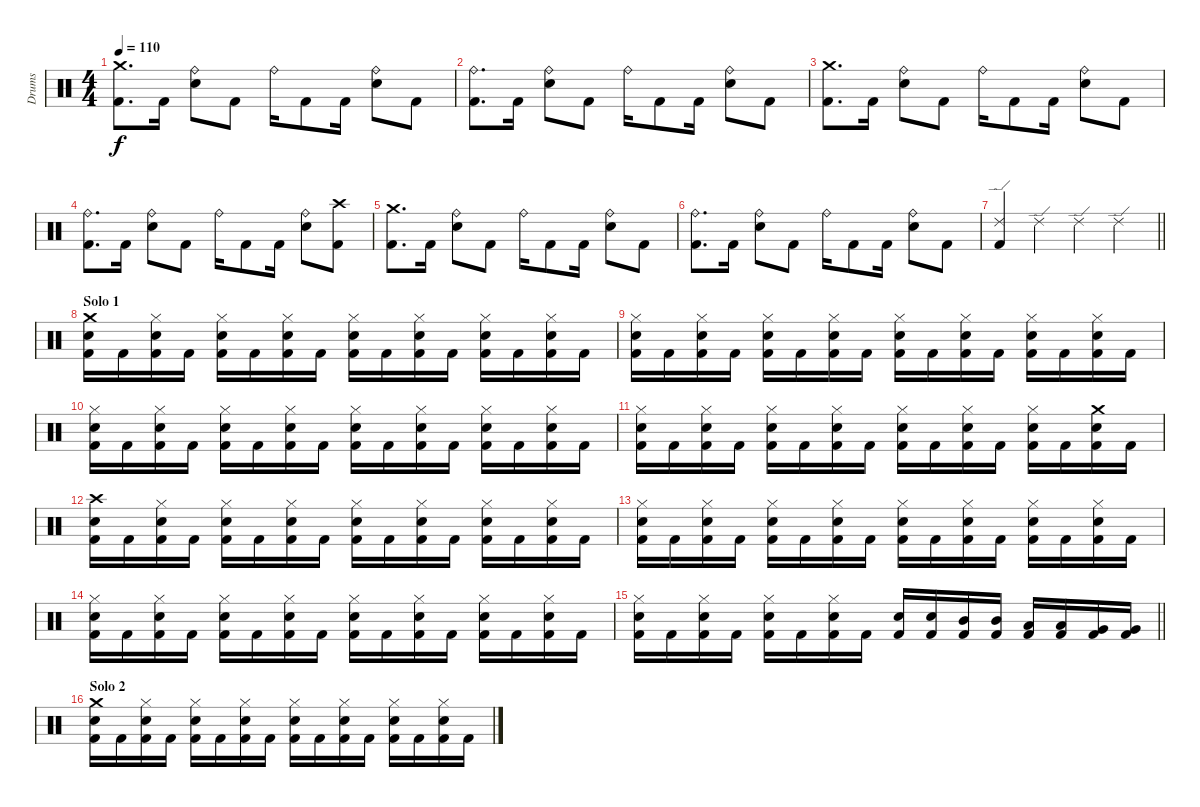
\track ("Drums" "Drums") {instrument percussion}
\staff {score}
\articulation defaults
\ts (4 4)
\tempo 110
\clef neutral
\ks c
("Kick (hit) 2" "Crash medium (hit)").8{d dy f} "Kick (hit) 2".16 ("Snare (hit) 2" "Ride (bell)").8 "Kick (hit) 2".8 "Ride (bell)".16 "Kick (hit) 2".8 "Kick (hit) 2".16 ("Snare (hit) 2" "Ride (bell)").8 "Kick (hit) 2".8 |
("Kick (hit) 2" "Ride (bell)").8{d} "Kick (hit) 2".16 ("Snare (hit) 2" "Ride (bell)").8 "Kick (hit) 2".8 "Ride (bell)".16 "Kick (hit) 2".8 "Kick (hit) 2".16 ("Snare (hit) 2" "Ride (bell)").8 "Kick (hit) 2".8 |
("Kick (hit) 2" "Crash medium (hit)").8{d} "Kick (hit) 2".16 ("Snare (hit) 2" "Ride (bell)").8 "Kick (hit) 2".8 "Ride (bell)".16 "Kick (hit) 2".8 "Kick (hit) 2".16 ("Snare (hit) 2" "Ride (bell)").8 "Kick (hit) 2".8 |
("Kick (hit) 2" "Ride (bell)").8{d} "Kick (hit) 2".16 ("Snare (hit) 2" "Ride (bell)").8 "Kick (hit) 2".8 "Ride (bell)".16 "Kick (hit) 2".8 "Kick (hit) 2".16 ("Snare (hit) 2" "Ride (bell)").8 ("Kick (hit) 2" "Crash high (hit)").8 |
("Kick (hit) 2" "Crash medium (hit)").8{d} "Kick (hit) 2".16 ("Snare (hit) 2" "Ride (bell)").8 "Kick (hit) 2".8 "Ride (bell)".16 "Kick (hit) 2".8 "Kick (hit) 2".16 ("Snare (hit) 2" "Ride (bell)").8 "Kick (hit) 2".8 |
("Kick (hit) 2" "Ride (bell)").8{d} "Kick (hit) 2".16 ("Snare (hit) 2" "Ride (bell)").8 "Kick (hit) 2".8 "Ride (bell)".16 "Kick (hit) 2".8 "Kick (hit) 2".16 ("Snare (hit) 2" "Ride (bell)").8 "Kick (hit) 2".8 |
\barLineRight lightlight
("Kick (hit) 2" "Ride (edge) 2").4 "Ride (edge) 2".4 "Ride (edge) 2".4 "Ride (edge) 2".4 |
\section ("" "Solo 1")
("Kick (hit) 2" "Snare (hit) 2" "Crash medium (hit)").16 "Kick (hit) 2".16 ("Kick (hit) 2" "Snare (hit) 2" "Hi-Hat (closed)").16 "Kick (hit) 2".16 ("Kick (hit) 2" "Snare (hit) 2" "Hi-Hat (closed)").16 "Kick (hit) 2".16 ("Kick (hit) 2" "Snare (hit) 2" "Hi-Hat (closed)").16 "Kick (hit) 2".16 ("Kick (hit) 2" "Snare (hit) 2" "Hi-Hat (closed)").16 "Kick (hit) 2".16 ("Kick (hit) 2" "Snare (hit) 2" "Hi-Hat (closed)").16 "Kick (hit) 2".16 ("Kick (hit) 2" "Snare (hit) 2" "Hi-Hat (closed)").16 "Kick (hit) 2".16 ("Kick (hit) 2" "Snare (hit) 2" "Hi-Hat (closed)").16 "Kick (hit) 2".16 |
("Kick (hit) 2" "Snare (hit) 2" "Hi-Hat (closed)").16 "Kick (hit) 2".16 ("Kick (hit) 2" "Snare (hit) 2" "Hi-Hat (closed)").16 "Kick (hit) 2".16 ("Kick (hit) 2" "Snare (hit) 2" "Hi-Hat (closed)").16 "Kick (hit) 2".16 ("Kick (hit) 2" "Snare (hit) 2" "Hi-Hat (closed)").16 "Kick (hit) 2".16 ("Kick (hit) 2" "Snare (hit) 2" "Hi-Hat (closed)").16 "Kick (hit) 2".16 ("Kick (hit) 2" "Snare (hit) 2" "Hi-Hat (closed)").16 "Kick (hit) 2".16 ("Kick (hit) 2" "Snare (hit) 2" "Hi-Hat (closed)").16 "Kick (hit) 2".16 ("Kick (hit) 2" "Snare (hit) 2" "Hi-Hat (closed)").16 "Kick (hit) 2".16 |
("Kick (hit) 2" "Snare (hit) 2" "Hi-Hat (closed)").16 "Kick (hit) 2".16 ("Kick (hit) 2" "Snare (hit) 2" "Hi-Hat (closed)").16 "Kick (hit) 2".16 ("Kick (hit) 2" "Snare (hit) 2" "Hi-Hat (closed)").16 "Kick (hit) 2".16 ("Kick (hit) 2" "Snare (hit) 2" "Hi-Hat (closed)").16 "Kick (hit) 2".16 ("Kick (hit) 2" "Snare (hit) 2" "Hi-Hat (closed)").16 "Kick (hit) 2".16 ("Kick (hit) 2" "Snare (hit) 2" "Hi-Hat (closed)").16 "Kick (hit) 2".16 ("Kick (hit) 2" "Snare (hit) 2" "Hi-Hat (closed)").16 "Kick (hit) 2".16 ("Kick (hit) 2" "Snare (hit) 2" "Hi-Hat (closed)").16 "Kick (hit) 2".16 |
("Kick (hit) 2" "Snare (hit) 2" "Hi-Hat (closed)").16 "Kick (hit) 2".16 ("Kick (hit) 2" "Snare (hit) 2" "Hi-Hat (closed)").16 "Kick (hit) 2".16 ("Kick (hit) 2" "Snare (hit) 2" "Hi-Hat (closed)").16 "Kick (hit) 2".16 ("Kick (hit) 2" "Snare (hit) 2" "Hi-Hat (closed)").16 "Kick (hit) 2".16 ("Kick (hit) 2" "Snare (hit) 2" "Hi-Hat (closed)").16 "Kick (hit) 2".16 ("Kick (hit) 2" "Snare (hit) 2" "Hi-Hat (closed)").16 "Kick (hit) 2".16 ("Kick (hit) 2" "Snare (hit) 2" "Hi-Hat (closed)").16 "Kick (hit) 2".16 ("Kick (hit) 2" "Snare (hit) 2" "Crash medium (hit)").16 "Kick (hit) 2".16 |
("Kick (hit) 2" "Snare (hit) 2" "Crash high (hit)").16 "Kick (hit) 2".16 ("Kick (hit) 2" "Snare (hit) 2" "Hi-Hat (closed)").16 "Kick (hit) 2".16 ("Kick (hit) 2" "Snare (hit) 2" "Hi-Hat (closed)").16 "Kick (hit) 2".16 ("Kick (hit) 2" "Snare (hit) 2" "Hi-Hat (closed)").16 "Kick (hit) 2".16 ("Kick (hit) 2" "Snare (hit) 2" "Hi-Hat (closed)").16 "Kick (hit) 2".16 ("Kick (hit) 2" "Snare (hit) 2" "Hi-Hat (closed)").16 "Kick (hit) 2".16 ("Kick (hit) 2" "Snare (hit) 2" "Hi-Hat (closed)").16 "Kick (hit) 2".16 ("Kick (hit) 2" "Snare (hit) 2" "Hi-Hat (closed)").16 "Kick (hit) 2".16 |
("Kick (hit) 2" "Snare (hit) 2" "Hi-Hat (closed)").16 "Kick (hit) 2".16 ("Kick (hit) 2" "Snare (hit) 2" "Hi-Hat (closed)").16 "Kick (hit) 2".16 ("Kick (hit) 2" "Snare (hit) 2" "Hi-Hat (closed)").16 "Kick (hit) 2".16 ("Kick (hit) 2" "Snare (hit) 2" "Hi-Hat (closed)").16 "Kick (hit) 2".16 ("Kick (hit) 2" "Snare (hit) 2" "Hi-Hat (closed)").16 "Kick (hit) 2".16 ("Kick (hit) 2" "Snare (hit) 2" "Hi-Hat (closed)").16 "Kick (hit) 2".16 ("Kick (hit) 2" "Snare (hit) 2" "Hi-Hat (closed)").16 "Kick (hit) 2".16 ("Kick (hit) 2" "Snare (hit) 2" "Hi-Hat (closed)").16 "Kick (hit) 2".16 |
("Kick (hit) 2" "Snare (hit) 2" "Hi-Hat (closed)").16 "Kick (hit) 2".16 ("Kick (hit) 2" "Snare (hit) 2" "Hi-Hat (closed)").16 "Kick (hit) 2".16 ("Kick (hit) 2" "Snare (hit) 2" "Hi-Hat (closed)").16 "Kick (hit) 2".16 ("Kick (hit) 2" "Snare (hit) 2" "Hi-Hat (closed)").16 "Kick (hit) 2".16 ("Kick (hit) 2" "Snare (hit) 2" "Hi-Hat (closed)").16 "Kick (hit) 2".16 ("Kick (hit) 2" "Snare (hit) 2" "Hi-Hat (closed)").16 "Kick (hit) 2".16 ("Kick (hit) 2" "Snare (hit) 2" "Hi-Hat (closed)").16 "Kick (hit) 2".16 ("Kick (hit) 2" "Snare (hit) 2" "Hi-Hat (closed)").16 "Kick (hit) 2".16 |
\barLineRight lightlight
("Kick (hit) 2" "Snare (hit) 2" "Hi-Hat (closed)").16 "Kick (hit) 2".16 ("Kick (hit) 2" "Snare (hit) 2" "Hi-Hat (closed)").16 "Kick (hit) 2".16 ("Kick (hit) 2" "Snare (hit) 2" "Hi-Hat (closed)").16 "Kick (hit) 2".16 ("Kick (hit) 2" "Snare (hit) 2" "Hi-Hat (closed)").16 "Kick (hit) 2".16 ("Kick (hit) 2" "Snare (hit) 2").16 ("Kick (hit) 2" "Snare (hit) 2").16 ("Kick (hit) 2" "Mid Tom (hit)").16 ("Kick (hit) 2" "Mid Tom (hit)").16 ("Kick (hit) 2" "Low Tom (hit)").16 ("Kick (hit) 2" "Low Tom (hit)").16 ("Kick (hit) 2" "Very Low Tom (hit)").16 ("Kick (hit) 2" "Very Low Tom (hit)").16 |
\section ("" "Solo 2")
("Kick (hit) 2" "Snare (hit) 2" "Crash medium (hit)").16 "Kick (hit) 2".16 ("Kick (hit) 2" "Snare (hit) 2" "Hi-Hat (closed)").16 "Kick (hit) 2".16 ("Kick (hit) 2" "Snare (hit) 2" "Hi-Hat (closed)").16 "Kick (hit) 2".16 ("Kick (hit) 2" "Snare (hit) 2" "Hi-Hat (closed)").16 "Kick (hit) 2".16 ("Kick (hit) 2" "Snare (hit) 2" "Hi-Hat (closed)").16 "Kick (hit) 2".16 ("Kick (hit) 2" "Snare (hit) 2" "Hi-Hat (closed)").16 "Kick (hit) 2".16 ("Kick (hit) 2" "Snare (hit) 2" "Hi-Hat (closed)").16 "Kick (hit) 2".16 ("Kick (hit) 2" "Snare (hit) 2" "Hi-Hat (closed)").16 "Kick (hit) 2".16
